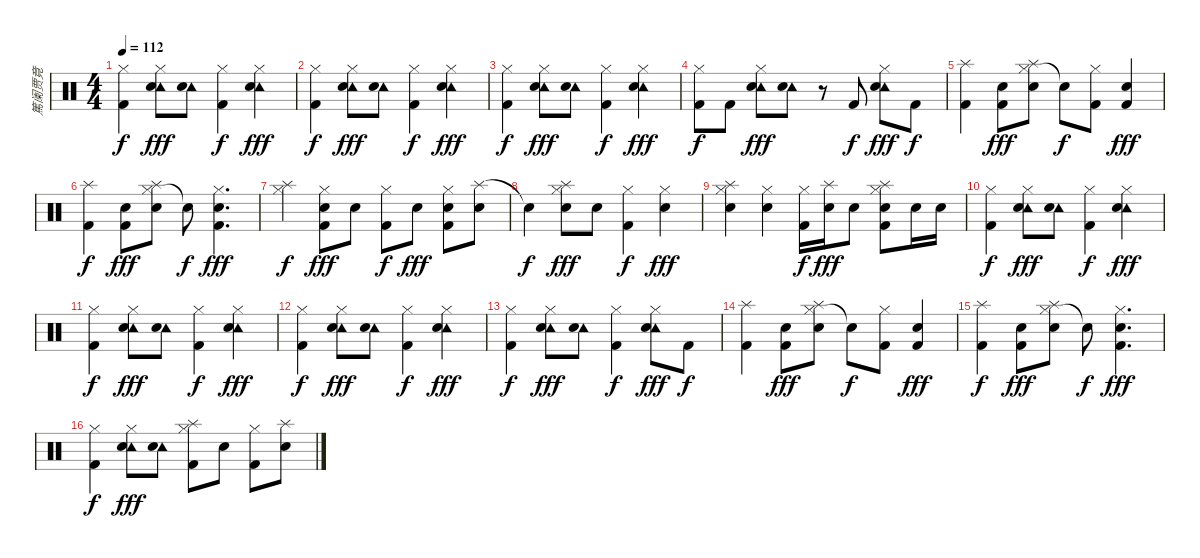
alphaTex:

\track ("篤阑贾竟" "篤阑贾竟") {instrument percussion}
\staff {score}
\articulation defaults
\ts (4 4)
\tempo 112
\clef neutral
\ks c
("Hi-Hat (closed)" "Kick (hit) 2").4{dy f} ("Hi-Hat (closed)" "Tambourine (hit)" "Electric Snare (hit)").8{dy fff} ("Tambourine (hit)" "Electric Snare (hit)").8 ("Hi-Hat (closed)" "Kick (hit) 2").4{dy f} ("Hi-Hat (closed)" "Tambourine (hit)" "Electric Snare (hit)").4{dy fff} |
("Hi-Hat (closed)" "Kick (hit) 2").4{dy f} ("Hi-Hat (closed)" "Tambourine (hit)" "Electric Snare (hit)").8{dy fff} ("Tambourine (hit)" "Electric Snare (hit)").8 ("Hi-Hat (closed)" "Kick (hit) 2").4{dy f} ("Hi-Hat (closed)" "Tambourine (hit)" "Electric Snare (hit)").4{dy fff} |
("Hi-Hat (closed)" "Kick (hit) 2").4{dy f} ("Hi-Hat (closed)" "Tambourine (hit)" "Electric Snare (hit)").8{dy fff} ("Tambourine (hit)" "Electric Snare (hit)").8 ("Hi-Hat (closed)" "Kick (hit) 2").4{dy f} ("Hi-Hat (closed)" "Tambourine (hit)" "Electric Snare (hit)").4{dy fff} |
("Hi-Hat (closed)" "Kick (hit) 2").8{dy f} "Kick (hit) 2".8 ("Hi-Hat (closed)" "Tambourine (hit)" "Electric Snare (hit)").8{dy fff} ("Tambourine (hit)" "Electric Snare (hit)").8 r.8 "Kick (hit) 2".8{dy f} ("Hi-Hat (closed)" "Tambourine (hit)" "Electric Snare (hit)").8{dy fff} "Kick (hit) 2".8{dy f} |
("Splash (hit)" "Kick (hit) 2").4 ("Electric Snare (hit)" "Kick (hit) 2").8{dy fff} ("Hi-Hat (closed)" "Splash (hit)" "Electric Snare (hit)").8 "Snare (hit)"{t}.8{dy f} ("Hi-Hat (closed)" "Kick (hit) 2").8 ("Electric Snare (hit)" "Kick (hit) 2").4{dy fff} |
("Splash (hit)" "Kick (hit) 2").4{dy f} ("Electric Snare (hit)" "Kick (hit) 2").8{dy fff} ("Hi-Hat (closed)" "Splash (hit)" "Electric Snare (hit)").8 "Snare (hit)"{t}.8{dy f} ("Hi-Hat (closed)" "Electric Snare (hit)" "Kick (hit) 2").4{d dy fff} |
("Hi-Hat (closed)" "Splash (hit)").4{dy f} ("Hi-Hat (closed)" "Electric Snare (hit)" "Kick (hit) 2").8{dy fff} "Electric Snare (hit)".8 ("Hi-Hat (closed)" "Kick (hit) 2").8{dy f} "Electric Snare (hit)".8{dy fff} ("Hi-Hat (closed)" "Electric Snare (hit)" "Kick (hit) 2").8 ("Splash (hit)" "Electric Snare (hit)").8 |
"Snare (hit)"{t}.4{dy f} ("Hi-Hat (closed)" "Splash (hit)" "Electric Snare (hit)").8{dy fff} "Electric Snare (hit)".8 ("Hi-Hat (closed)" "Kick (hit) 2").4{dy f} ("Hi-Hat (closed)" "Electric Snare (hit)").4{dy fff} |
("Hi-Hat (closed)" "Splash (hit)" "Electric Snare (hit)").4 ("Hi-Hat (closed)" "Electric Snare (hit)").4 ("Hi-Hat (closed)" "Kick (hit) 2").16{dy f} ("Splash (hit)" "Electric Snare (hit)").16{dy fff} "Electric Snare (hit)".8 ("Hi-Hat (closed)" "Splash (hit)" "Electric Snare (hit)" "Kick (hit) 2").8 "Electric Snare (hit)".16 "Electric Snare (hit)".16 |
("Hi-Hat (closed)" "Kick (hit) 2").4{dy f} ("Hi-Hat (closed)" "Tambourine (hit)" "Electric Snare (hit)").8{dy fff} ("Tambourine (hit)" "Electric Snare (hit)").8 ("Hi-Hat (closed)" "Kick (hit) 2").4{dy f} ("Hi-Hat (closed)" "Tambourine (hit)" "Electric Snare (hit)").4{dy fff} |
("Hi-Hat (closed)" "Kick (hit) 2").4{dy f} ("Hi-Hat (closed)" "Tambourine (hit)" "Electric Snare (hit)").8{dy fff} ("Tambourine (hit)" "Electric Snare (hit)").8 ("Hi-Hat (closed)" "Kick (hit) 2").4{dy f} ("Hi-Hat (closed)" "Tambourine (hit)" "Electric Snare (hit)").4{dy fff} |
("Hi-Hat (closed)" "Kick (hit) 2").4{dy f} ("Hi-Hat (closed)" "Tambourine (hit)" "Electric Snare (hit)").8{dy fff} ("Tambourine (hit)" "Electric Snare (hit)").8 ("Hi-Hat (closed)" "Kick (hit) 2").4{dy f} ("Hi-Hat (closed)" "Tambourine (hit)" "Electric Snare (hit)").4{dy fff} |
("Hi-Hat (closed)" "Kick (hit) 2").4{dy f} ("Hi-Hat (closed)" "Tambourine (hit)" "Electric Snare (hit)").8{dy fff} ("Tambourine (hit)" "Electric Snare (hit)").8 ("Hi-Hat (closed)" "Kick (hit) 2").4{dy f} ("Hi-Hat (closed)" "Tambourine (hit)" "Electric Snare (hit)").8{dy fff} "Kick (hit) 2".8{dy f} |
("Splash (hit)" "Kick (hit) 2").4 ("Electric Snare (hit)" "Kick (hit) 2").8{dy fff} ("Hi-Hat (closed)" "Splash (hit)" "Electric Snare (hit)").8 "Snare (hit)"{t}.8{dy f} ("Hi-Hat (closed)" "Kick (hit) 2").8 ("Electric Snare (hit)" "Kick (hit) 2").4{dy fff} |
("Splash (hit)" "Kick (hit) 2").4{dy f} ("Electric Snare (hit)" "Kick (hit) 2").8{dy fff} ("Hi-Hat (closed)" "Splash (hit)" "Electric Snare (hit)").8 "Snare (hit)"{t}.8{dy f} ("Hi-Hat (closed)" "Electric Snare (hit)" "Kick (hit) 2").4{d dy fff} |
("Hi-Hat (closed)" "Kick (hit) 2").4{dy f} ("Hi-Hat (closed)" "Tambourine (hit)" "Electric Snare (hit)").8{dy fff} ("Tambourine (hit)" "Electric Snare (hit)").8 ("Hi-Hat (closed)" "Splash (hit)" "Kick (hit) 2").8 "Electric Snare (hit)".8 ("Hi-Hat (closed)" "Kick (hit) 2").8 ("Splash (hit)" "Electric Snare (hit)").8
